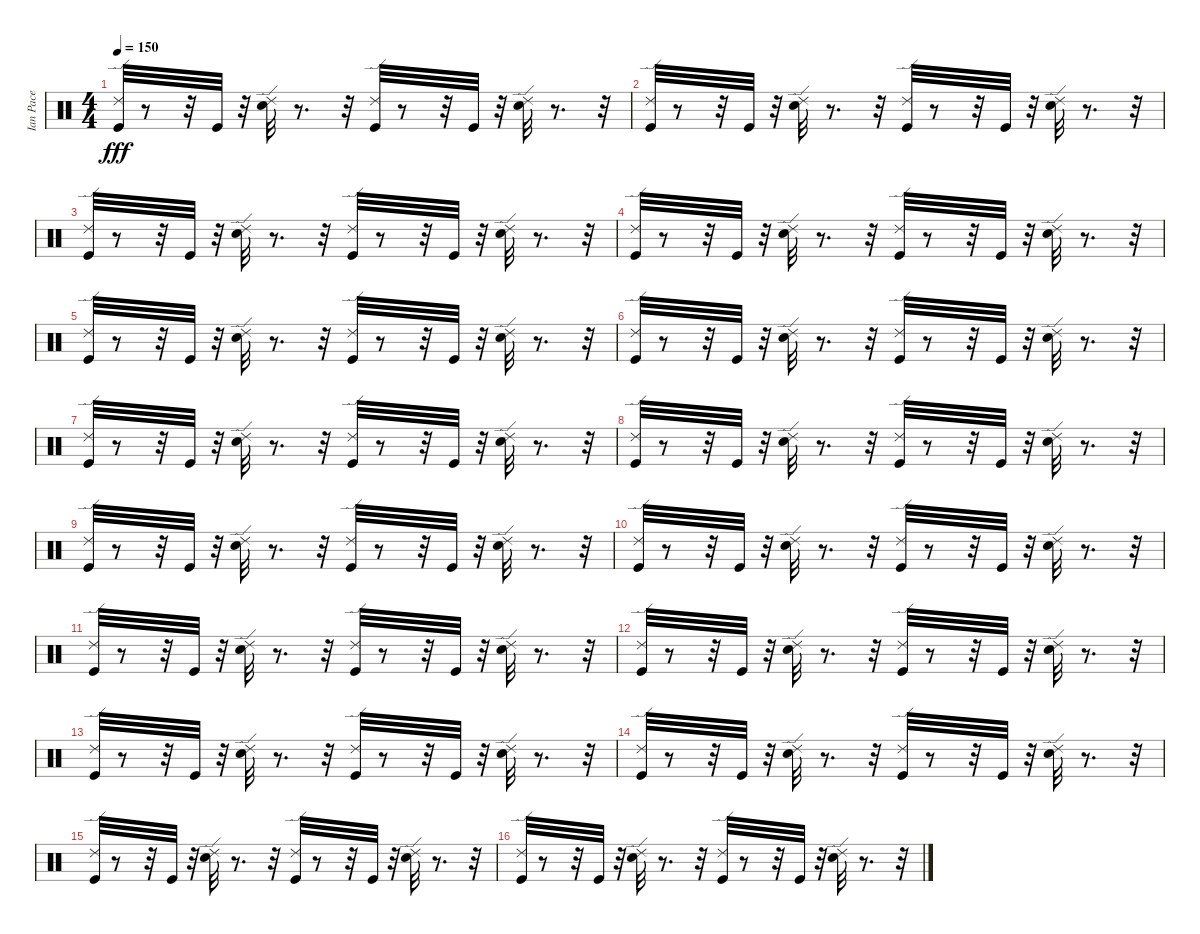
\track ("Ian Pace" "Ian Pace") {instrument percussion}
\staff {score}
\articulation defaults
\ts (4 4)
\tempo 150
\clef neutral
\ks c
("Ride (edge) 2" "Kick (hit)").32{dy fff} r.8 r.32 "Kick (hit)".32 r.32 ("Electric Snare (hit)" "Ride (edge) 2").32 r.8{d} r.32 ("Kick (hit)" "Ride (edge) 2").32 r.8 r.32 "Kick (hit)".32 r.32 ("Electric Snare (hit)" "Ride (edge) 2").32 r.8{d} r.32 |
("Kick (hit)" "Ride (edge) 2").32 r.8 r.32 "Kick (hit)".32 r.32 ("Ride (edge) 2" "Electric Snare (hit)").32 r.8{d} r.32 ("Kick (hit)" "Ride (edge) 2").32 r.8 r.32 "Kick (hit)".32 r.32 ("Electric Snare (hit)" "Ride (edge) 2").32 r.8{d} r.32 |
("Ride (edge) 2" "Kick (hit)").32 r.8 r.32 "Kick (hit)".32 r.32 ("Ride (edge) 2" "Electric Snare (hit)").32 r.8{d} r.32 ("Kick (hit)" "Ride (edge) 2").32 r.8 r.32 "Kick (hit)".32 r.32 ("Electric Snare (hit)" "Ride (edge) 2").32 r.8{d} r.32 |
("Kick (hit)" "Ride (edge) 2").32 r.8 r.32 "Kick (hit)".32 r.32 ("Ride (edge) 2" "Electric Snare (hit)").32 r.8{d} r.32 ("Kick (hit)" "Ride (edge) 2").32 r.8 r.32 "Kick (hit)".32 r.32 ("Electric Snare (hit)" "Ride (edge) 2").32 r.8{d} r.32 |
("Ride (edge) 2" "Kick (hit)").32 r.8 r.32 "Kick (hit)".32 r.32 ("Electric Snare (hit)" "Ride (edge) 2").32 r.8{d} r.32 ("Kick (hit)" "Ride (edge) 2").32 r.8 r.32 "Kick (hit)".32 r.32 ("Ride (edge) 2" "Electric Snare (hit)").32 r.8{d} r.32 |
("Ride (edge) 2" "Kick (hit)").32 r.8 r.32 "Kick (hit)".32 r.32 ("Electric Snare (hit)" "Ride (edge) 2").32 r.8{d} r.32 ("Ride (edge) 2" "Kick (hit)").32 r.8 r.32 "Kick (hit)".32 r.32 ("Ride (edge) 2" "Electric Snare (hit)").32 r.8{d} r.32 |
("Ride (edge) 2" "Kick (hit)").32 r.8 r.32 "Kick (hit)".32 r.32 ("Electric Snare (hit)" "Ride (edge) 2").32 r.8{d} r.32 ("Kick (hit)" "Ride (edge) 2").32 r.8 r.32 "Kick (hit)".32 r.32 ("Electric Snare (hit)" "Ride (edge) 2").32 r.8{d} r.32 |
("Kick (hit)" "Ride (edge) 2").32 r.8 r.32 "Kick (hit)".32 r.32 ("Electric Snare (hit)" "Ride (edge) 2").32 r.8{d} r.32 ("Ride (edge) 2" "Kick (hit)").32 r.8 r.32 "Kick (hit)".32 r.32 ("Electric Snare (hit)" "Ride (edge) 2").32 r.8{d} r.32 |
("Ride (edge) 2" "Kick (hit)").32 r.8 r.32 "Kick (hit)".32 r.32 ("Electric Snare (hit)" "Ride (edge) 2").32 r.8{d} r.32 ("Ride (edge) 2" "Kick (hit)").32 r.8 r.32 "Kick (hit)".32 r.32 ("Ride (edge) 2" "Electric Snare (hit)").32 r.8{d} r.32 |
("Ride (edge) 2" "Kick (hit)").32 r.8 r.32 "Kick (hit)".32 r.32 ("Electric Snare (hit)" "Ride (edge) 2").32 r.8{d} r.32 ("Kick (hit)" "Ride (edge) 2").32 r.8 r.32 "Kick (hit)".32 r.32 ("Electric Snare (hit)" "Ride (edge) 2").32 r.8{d} r.32 |
("Kick (hit)" "Ride (edge) 2").32 r.8 r.32 "Kick (hit)".32 r.32 ("Electric Snare (hit)" "Ride (edge) 2").32 r.8{d} r.32 ("Kick (hit)" "Ride (edge) 2").32 r.8 r.32 "Kick (hit)".32 r.32 ("Electric Snare (hit)" "Ride (edge) 2").32 r.8{d} r.32 |
("Kick (hit)" "Ride (edge) 2").32 r.8 r.32 "Kick (hit)".32 r.32 ("Ride (edge) 2" "Electric Snare (hit)").32 r.8{d} r.32 ("Kick (hit)" "Ride (edge) 2").32 r.8 r.32 "Kick (hit)".32 r.32 ("Electric Snare (hit)" "Ride (edge) 2").32 r.8{d} r.32 |
("Ride (edge) 2" "Kick (hit)").32 r.8 r.32 "Kick (hit)".32 r.32 ("Electric Snare (hit)" "Ride (edge) 2").32 r.8{d} r.32 ("Kick (hit)" "Ride (edge) 2").32 r.8 r.32 "Kick (hit)".32 r.32 ("Electric Snare (hit)" "Ride (edge) 2").32 r.8{d} r.32 |
("Kick (hit)" "Ride (edge) 2").32 r.8 r.32 "Kick (hit)".32 r.32 ("Ride (edge) 2" "Electric Snare (hit)").32 r.8{d} r.32 ("Kick (hit)" "Ride (edge) 2").32 r.8 r.32 "Kick (hit)".32 r.32 ("Electric Snare (hit)" "Ride (edge) 2").32 r.8{d} r.32 |
("Ride (edge) 2" "Kick (hit)").32 r.8 r.32 "Kick (hit)".32 r.32 ("Electric Snare (hit)" "Ride (edge) 2").32 r.8{d} r.32 ("Ride (edge) 2" "Kick (hit)").32 r.8 r.32 "Kick (hit)".32 r.32 ("Electric Snare (hit)" "Ride (edge) 2").32 r.8{d} r.32 |
("Kick (hit)" "Ride (edge) 2").32 r.8 r.32 "Kick (hit)".32 r.32 ("Electric Snare (hit)" "Ride (edge) 2").32 r.8{d} r.32 ("Ride (edge) 2" "Kick (hit)").32 r.8 r.32 "Kick (hit)".32 r.32 ("Ride (edge) 2" "Electric Snare (hit)").32 r.8{d} r.32
